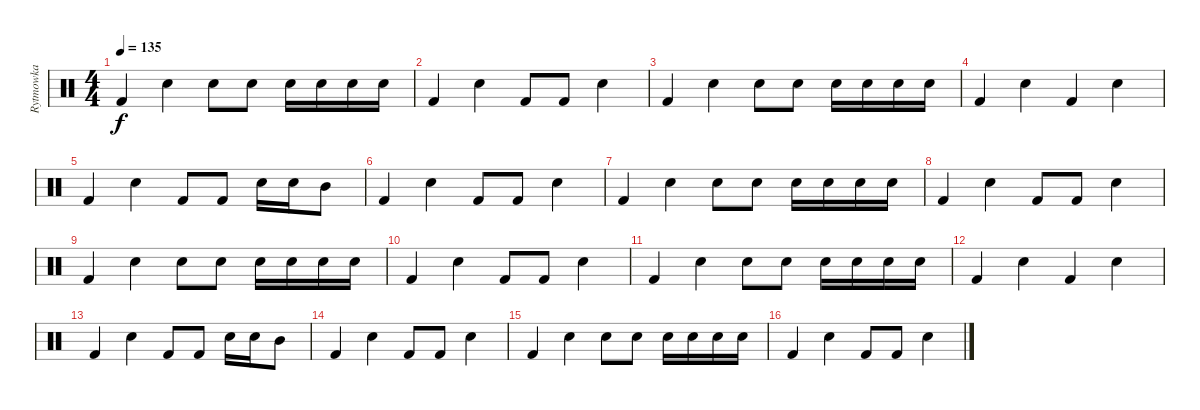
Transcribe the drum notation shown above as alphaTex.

\track ("Rytmowka" "Rytmowka") {instrument percussion}
\staff {score}
\articulation defaults
\ts (4 4)
\tempo 135
\clef neutral
\ks c "Kick (hit) 2".4{dy f} "Snare (hit) 2".4 "Snare (hit) 2".8 "Snare (hit) 2".8 "Snare (hit) 2".16 "Snare (hit) 2".16 "Snare (hit) 2".16 "Snare (hit) 2".16
|
"Kick (hit) 2".4 "Snare (hit) 2".4 "Kick (hit) 2".8 "Kick (hit) 2".8 "Snare (hit) 2".4 |
"Kick (hit) 2".4 "Snare (hit) 2".4 "Snare (hit) 2".8 "Snare (hit) 2".8 "Snare (hit) 2".16 "Snare (hit) 2".16 "Snare (hit) 2".16 "Snare (hit) 2".16 |
"Kick (hit) 2".4 "Snare (hit) 2".4 "Kick (hit) 2".4 "Snare (hit) 2".4 |
"Kick (hit) 2".4 "Snare (hit) 2".4 "Kick (hit) 2".8 "Kick (hit) 2".8 "Snare (hit) 2".16 "Snare (hit) 2".16 "Mid Tom (hit)".8 |
"Kick (hit) 2".4 "Snare (hit) 2".4 "Kick (hit) 2".8 "Kick (hit) 2".8 "Snare (hit) 2".4 |
"Kick (hit) 2".4 "Snare (hit) 2".4 "Snare (hit) 2".8 "Snare (hit) 2".8 "Snare (hit) 2".16 "Snare (hit) 2".16 "Snare (hit) 2".16 "Snare (hit) 2".16 |
"Kick (hit) 2".4 "Snare (hit) 2".4 "Kick (hit) 2".8 "Kick (hit) 2".8 "Snare (hit) 2".4 |
"Kick (hit) 2".4 "Snare (hit) 2".4 "Snare (hit) 2".8 "Snare (hit) 2".8 "Snare (hit) 2".16 "Snare (hit) 2".16 "Snare (hit) 2".16 "Snare (hit) 2".16 |
"Kick (hit) 2".4 "Snare (hit) 2".4 "Kick (hit) 2".8 "Kick (hit) 2".8 "Snare (hit) 2".4 |
"Kick (hit) 2".4 "Snare (hit) 2".4 "Snare (hit) 2".8 "Snare (hit) 2".8 "Snare (hit) 2".16 "Snare (hit) 2".16 "Snare (hit) 2".16 "Snare (hit) 2".16 |
"Kick (hit) 2".4 "Snare (hit) 2".4 "Kick (hit) 2".4 "Snare (hit) 2".4 |
"Kick (hit) 2".4 "Snare (hit) 2".4 "Kick (hit) 2".8 "Kick (hit) 2".8 "Snare (hit) 2".16 "Snare (hit) 2".16 "Mid Tom (hit)".8 |
"Kick (hit) 2".4 "Snare (hit) 2".4 "Kick (hit) 2".8 "Kick (hit) 2".8 "Snare (hit) 2".4 |
"Kick (hit) 2".4 "Snare (hit) 2".4 "Snare (hit) 2".8 "Snare (hit) 2".8 "Snare (hit) 2".16 "Snare (hit) 2".16 "Snare (hit) 2".16 "Snare (hit) 2".16 |
"Kick (hit) 2".4 "Snare (hit) 2".4 "Kick (hit) 2".8 "Kick (hit) 2".8 "Snare (hit) 2".4
